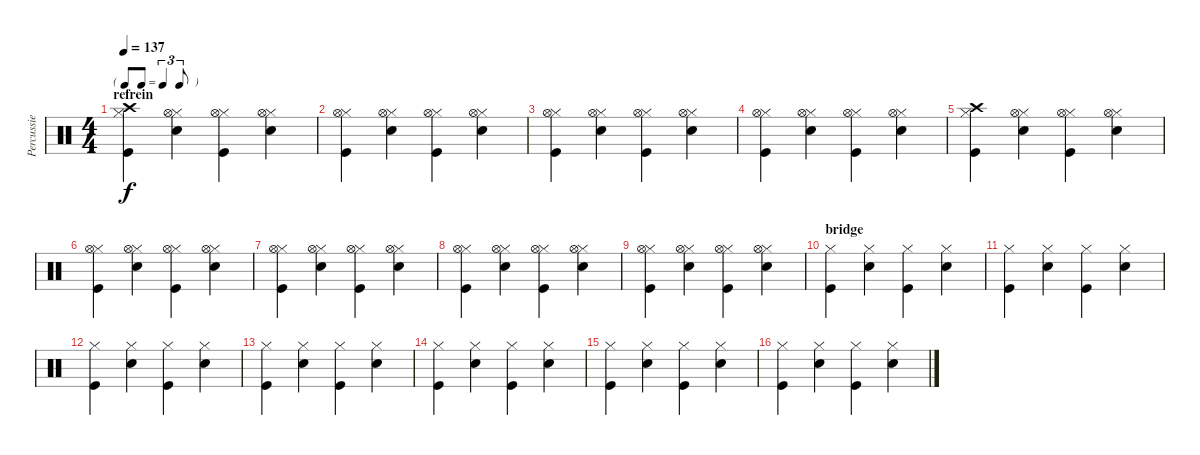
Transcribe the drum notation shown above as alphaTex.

\track ("Percussie" "Percussie") {instrument percussion}
\staff {score}
\articulation defaults
\ts (4 4)
\tf triplet8th
\section ("" "refrein")
\tempo 137
\clef neutral
\ks c
("Hi-Hat (closed)" "Crash high (hit)" "Kick (hit)").4{dy f} ("Hi-Hat (closed)" "Hi-Hat (open)" "Snare (hit) 2").4 ("Hi-Hat (closed)" "Hi-Hat (open)" "Kick (hit)").4 ("Hi-Hat (closed)" "Hi-Hat (open)" "Snare (hit) 2").4 |
("Hi-Hat (closed)" "Hi-Hat (open)" "Kick (hit)").4 ("Hi-Hat (closed)" "Hi-Hat (open)" "Snare (hit) 2").4 ("Hi-Hat (closed)" "Hi-Hat (open)" "Kick (hit)").4 ("Hi-Hat (closed)" "Hi-Hat (open)" "Snare (hit) 2").4 |
("Hi-Hat (closed)" "Hi-Hat (open)" "Kick (hit)").4 ("Hi-Hat (closed)" "Hi-Hat (open)" "Snare (hit) 2").4 ("Hi-Hat (closed)" "Hi-Hat (open)" "Kick (hit)").4 ("Hi-Hat (closed)" "Hi-Hat (open)" "Snare (hit) 2").4 |
("Hi-Hat (closed)" "Hi-Hat (open)" "Kick (hit)").4 ("Hi-Hat (closed)" "Hi-Hat (open)" "Snare (hit) 2").4 ("Hi-Hat (closed)" "Hi-Hat (open)" "Kick (hit)").4 ("Hi-Hat (closed)" "Hi-Hat (open)" "Snare (hit) 2").4 |
("Hi-Hat (closed)" "Crash high (hit)" "Kick (hit)").4 ("Hi-Hat (closed)" "Hi-Hat (open)" "Snare (hit) 2").4 ("Hi-Hat (closed)" "Hi-Hat (open)" "Kick (hit)").4 ("Hi-Hat (closed)" "Hi-Hat (open)" "Snare (hit) 2").4 |
("Hi-Hat (closed)" "Hi-Hat (open)" "Kick (hit)").4 ("Hi-Hat (closed)" "Hi-Hat (open)" "Snare (hit) 2").4 ("Hi-Hat (closed)" "Hi-Hat (open)" "Kick (hit)").4 ("Hi-Hat (closed)" "Hi-Hat (open)" "Snare (hit) 2").4 |
("Hi-Hat (closed)" "Hi-Hat (open)" "Kick (hit)").4 ("Hi-Hat (closed)" "Hi-Hat (open)" "Snare (hit) 2").4 ("Hi-Hat (closed)" "Hi-Hat (open)" "Kick (hit)").4 ("Hi-Hat (closed)" "Hi-Hat (open)" "Snare (hit) 2").4 |
("Hi-Hat (closed)" "Hi-Hat (open)" "Kick (hit)").4 ("Hi-Hat (closed)" "Hi-Hat (open)" "Snare (hit) 2").4 ("Hi-Hat (closed)" "Hi-Hat (open)" "Kick (hit)").4 ("Hi-Hat (closed)" "Hi-Hat (open)" "Snare (hit) 2").4 |
("Hi-Hat (closed)" "Hi-Hat (open)" "Kick (hit)").4 ("Hi-Hat (closed)" "Hi-Hat (open)" "Snare (hit) 2").4 ("Hi-Hat (closed)" "Hi-Hat (open)" "Kick (hit)").4 ("Hi-Hat (closed)" "Hi-Hat (open)" "Snare (hit) 2").4 |
\section ("" "bridge")
("Hi-Hat (closed)" "Kick (hit)").4 ("Hi-Hat (closed)" "Snare (hit) 2").4 ("Hi-Hat (closed)" "Kick (hit)").4 ("Hi-Hat (closed)" "Snare (hit) 2").4 |
("Hi-Hat (closed)" "Kick (hit)").4 ("Hi-Hat (closed)" "Snare (hit) 2").4 ("Hi-Hat (closed)" "Kick (hit)").4 ("Hi-Hat (closed)" "Snare (hit) 2").4 |
("Hi-Hat (closed)" "Kick (hit)").4 ("Hi-Hat (closed)" "Snare (hit) 2").4 ("Hi-Hat (closed)" "Kick (hit)").4 ("Hi-Hat (closed)" "Snare (hit) 2").4 |
("Hi-Hat (closed)" "Kick (hit)").4 ("Hi-Hat (closed)" "Snare (hit) 2").4 ("Hi-Hat (closed)" "Kick (hit)").4 ("Hi-Hat (closed)" "Snare (hit) 2").4 |
("Hi-Hat (closed)" "Kick (hit)").4 ("Hi-Hat (closed)" "Snare (hit) 2").4 ("Hi-Hat (closed)" "Kick (hit)").4 ("Hi-Hat (closed)" "Snare (hit) 2").4 |
("Hi-Hat (closed)" "Kick (hit)").4 ("Hi-Hat (closed)" "Snare (hit) 2").4 ("Hi-Hat (closed)" "Kick (hit)").4 ("Hi-Hat (closed)" "Snare (hit) 2").4 |
("Hi-Hat (closed)" "Kick (hit)").4 ("Hi-Hat (closed)" "Snare (hit) 2").4 ("Hi-Hat (closed)" "Kick (hit)").4 ("Hi-Hat (closed)" "Snare (hit) 2").4
